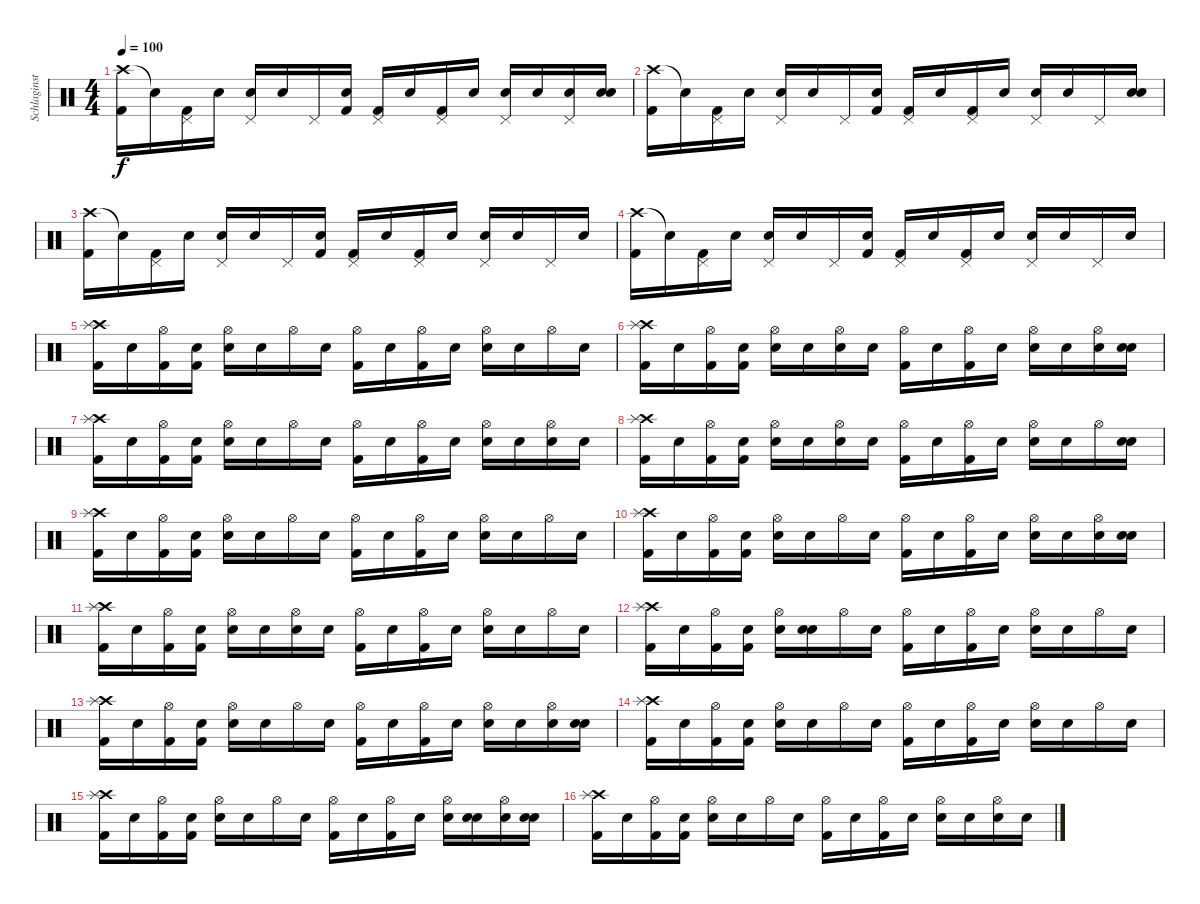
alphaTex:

\track ("Schlaginstrumente - Auswahl" "Schlaginst") {instrument percussion}
\staff {score}
\articulation defaults
\ts (4 4)
\tempo 100
\clef neutral
\ks c
("Crash high (hit)" "Kick (hit) 2").16{dy f} "Snare (hit)"{t}.16 ("Pedal Hi-Hat (hit)" "Kick (hit) 2").16 "Snare (hit)"{x}.16 ("Pedal Hi-Hat (hit)" "Electric Snare (hit)").16 "Snare (hit)"{x}.16 "Pedal Hi-Hat (hit)".16 ("Snare (hit)"{x} "Kick (hit) 2").16 ("Pedal Hi-Hat (hit)" "Kick (hit) 2").16 "Snare (hit)"{x}.16 ("Pedal Hi-Hat (hit)" "Kick (hit) 2").16 "Snare (hit)"{x}.16 ("Pedal Hi-Hat (hit)" "Electric Snare (hit)").16 "Snare (hit)"{x}.16 ("Pedal Hi-Hat (hit)" "Electric Snare (hit)").16 ("Snare (hit)"{x} "Electric Snare (hit)").16 |
("Crash high (hit)" "Kick (hit) 2").16 "Snare (hit)"{t}.16 ("Pedal Hi-Hat (hit)" "Kick (hit) 2").16 "Snare (hit)"{x}.16 ("Pedal Hi-Hat (hit)" "Electric Snare (hit)").16 "Snare (hit)"{x}.16 "Pedal Hi-Hat (hit)".16 ("Snare (hit)"{x} "Kick (hit) 2").16 ("Pedal Hi-Hat (hit)" "Kick (hit) 2").16 "Snare (hit)"{x}.16 ("Pedal Hi-Hat (hit)" "Kick (hit) 2").16 "Snare (hit)"{x}.16 ("Pedal Hi-Hat (hit)" "Electric Snare (hit)").16 "Snare (hit)"{x}.16 "Pedal Hi-Hat (hit)".16 ("Snare (hit)"{x} "Electric Snare (hit)").16 |
("Crash high (hit)" "Kick (hit) 2").16 "Snare (hit)"{t}.16 ("Pedal Hi-Hat (hit)" "Kick (hit) 2").16 "Snare (hit)"{x}.16 ("Pedal Hi-Hat (hit)" "Electric Snare (hit)").16 "Snare (hit)"{x}.16 "Pedal Hi-Hat (hit)".16 ("Snare (hit)"{x} "Kick (hit) 2").16 ("Pedal Hi-Hat (hit)" "Kick (hit) 2").16 "Snare (hit)"{x}.16 ("Pedal Hi-Hat (hit)" "Kick (hit) 2").16 "Snare (hit)"{x}.16 ("Pedal Hi-Hat (hit)" "Electric Snare (hit)").16 "Snare (hit)"{x}.16 "Pedal Hi-Hat (hit)".16 "Snare (hit)"{x}.16 |
("Crash high (hit)" "Kick (hit) 2").16 "Snare (hit)"{t}.16 ("Pedal Hi-Hat (hit)" "Kick (hit) 2").16 "Snare (hit)"{x}.16 ("Pedal Hi-Hat (hit)" "Electric Snare (hit)").16 "Snare (hit)"{x}.16 "Pedal Hi-Hat (hit)".16 ("Snare (hit)"{x} "Kick (hit) 2").16 ("Pedal Hi-Hat (hit)" "Kick (hit) 2").16 "Snare (hit)"{x}.16 ("Pedal Hi-Hat (hit)" "Kick (hit) 2").16 "Snare (hit)"{x}.16 ("Pedal Hi-Hat (hit)" "Electric Snare (hit)").16 "Snare (hit)"{x}.16 "Pedal Hi-Hat (hit)".16 "Snare (hit)"{x}.16 |
("Crash high (hit)" "Splash (hit)" "Kick (hit) 2").16 "Snare (hit)"{x}.16 ("Hi-Hat (open)" "Kick (hit) 2").16 ("Snare (hit)"{x} "Kick (hit) 2").16 ("Hi-Hat (open)" "Electric Snare (hit)").16 "Snare (hit)"{x}.16 "Hi-Hat (open)".16 "Snare (hit)"{x}.16 ("Hi-Hat (open)" "Kick (hit) 2").16 "Snare (hit)"{x}.16 ("Hi-Hat (open)" "Kick (hit) 2").16 "Snare (hit)"{x}.16 ("Hi-Hat (open)" "Electric Snare (hit)").16 "Snare (hit)"{x}.16 "Hi-Hat (open)".16 "Snare (hit)"{x}.16 |
("Crash high (hit)" "Splash (hit)" "Kick (hit) 2").16 "Snare (hit)"{x}.16 ("Hi-Hat (open)" "Kick (hit) 2").16 ("Snare (hit)"{x} "Kick (hit) 2").16 ("Hi-Hat (open)" "Electric Snare (hit)").16 "Snare (hit)"{x}.16 ("Hi-Hat (open)" "Electric Snare (hit)").16 "Snare (hit)"{x}.16 ("Hi-Hat (open)" "Kick (hit) 2").16 "Snare (hit)"{x}.16 ("Hi-Hat (open)" "Kick (hit) 2").16 "Snare (hit)"{x}.16 ("Hi-Hat (open)" "Electric Snare (hit)").16 "Snare (hit)"{x}.16 ("Hi-Hat (open)" "Electric Snare (hit)").16 ("Snare (hit)"{x} "Electric Snare (hit)").16 |
("Crash high (hit)" "Splash (hit)" "Kick (hit) 2").16 "Snare (hit)"{x}.16 ("Hi-Hat (open)" "Kick (hit) 2").16 ("Snare (hit)"{x} "Kick (hit) 2").16 ("Hi-Hat (open)" "Electric Snare (hit)").16 "Snare (hit)"{x}.16 "Hi-Hat (open)".16 "Snare (hit)"{x}.16 ("Hi-Hat (open)" "Kick (hit) 2").16 "Snare (hit)"{x}.16 ("Hi-Hat (open)" "Kick (hit) 2").16 "Snare (hit)"{x}.16 ("Hi-Hat (open)" "Electric Snare (hit)").16 "Snare (hit)"{x}.16 ("Hi-Hat (open)" "Electric Snare (hit)").16 "Snare (hit)"{x}.16 |
("Crash high (hit)" "Splash (hit)" "Kick (hit) 2").16 "Snare (hit)"{x}.16 ("Hi-Hat (open)" "Kick (hit) 2").16 ("Snare (hit)"{x} "Kick (hit) 2").16 ("Hi-Hat (open)" "Electric Snare (hit)").16 "Snare (hit)"{x}.16 ("Hi-Hat (open)" "Electric Snare (hit)").16 "Snare (hit)"{x}.16 ("Hi-Hat (open)" "Kick (hit) 2").16 "Snare (hit)"{x}.16 ("Hi-Hat (open)" "Kick (hit) 2").16 "Snare (hit)"{x}.16 ("Hi-Hat (open)" "Electric Snare (hit)").16 "Snare (hit)"{x}.16 "Hi-Hat (open)".16 ("Snare (hit)"{x} "Electric Snare (hit)").16 |
("Crash high (hit)" "Splash (hit)" "Kick (hit) 2").16 "Snare (hit)"{x}.16 ("Hi-Hat (open)" "Kick (hit) 2").16 ("Snare (hit)"{x} "Kick (hit) 2").16 ("Hi-Hat (open)" "Electric Snare (hit)").16 "Snare (hit)"{x}.16 "Hi-Hat (open)".16 "Snare (hit)"{x}.16 ("Hi-Hat (open)" "Kick (hit) 2").16 "Snare (hit)"{x}.16 ("Hi-Hat (open)" "Kick (hit) 2").16 "Snare (hit)"{x}.16 ("Hi-Hat (open)" "Electric Snare (hit)").16 "Snare (hit)"{x}.16 "Hi-Hat (open)".16 "Snare (hit)"{x}.16 |
("Crash high (hit)" "Splash (hit)" "Kick (hit) 2").16 "Snare (hit)"{x}.16 ("Hi-Hat (open)" "Kick (hit) 2").16 ("Snare (hit)"{x} "Kick (hit) 2").16 ("Hi-Hat (open)" "Electric Snare (hit)").16 "Snare (hit)"{x}.16 "Hi-Hat (open)".16 "Snare (hit)"{x}.16 ("Hi-Hat (open)" "Kick (hit) 2").16 "Snare (hit)"{x}.16 ("Hi-Hat (open)" "Kick (hit) 2").16 "Snare (hit)"{x}.16 ("Hi-Hat (open)" "Electric Snare (hit)").16 "Snare (hit)"{x}.16 ("Hi-Hat (open)" "Electric Snare (hit)").16 ("Snare (hit)"{x} "Electric Snare (hit)").16 |
("Crash high (hit)" "Splash (hit)" "Kick (hit) 2").16 "Snare (hit)"{x}.16 ("Hi-Hat (open)" "Kick (hit) 2").16 ("Snare (hit)"{x} "Kick (hit) 2").16 ("Hi-Hat (open)" "Electric Snare (hit)").16 "Snare (hit)"{x}.16 ("Hi-Hat (open)" "Electric Snare (hit)").16 "Snare (hit)"{x}.16 ("Hi-Hat (open)" "Kick (hit) 2").16 "Snare (hit)"{x}.16 ("Hi-Hat (open)" "Kick (hit) 2").16 "Snare (hit)"{x}.16 ("Hi-Hat (open)" "Electric Snare (hit)").16 "Snare (hit)"{x}.16 "Hi-Hat (open)".16 "Snare (hit)"{x}.16 |
("Crash high (hit)" "Splash (hit)" "Kick (hit) 2").16 "Snare (hit)"{x}.16 ("Hi-Hat (open)" "Kick (hit) 2").16 ("Snare (hit)"{x} "Kick (hit) 2").16 ("Hi-Hat (open)" "Electric Snare (hit)").16 ("Snare (hit)"{x} "Electric Snare (hit)").16 "Hi-Hat (open)".16 "Snare (hit)"{x}.16 ("Hi-Hat (open)" "Kick (hit) 2").16 "Snare (hit)"{x}.16 ("Hi-Hat (open)" "Kick (hit) 2").16 "Snare (hit)"{x}.16 ("Hi-Hat (open)" "Electric Snare (hit)").16 "Snare (hit)"{x}.16 "Hi-Hat (open)".16 "Snare (hit)"{x}.16 |
("Crash high (hit)" "Splash (hit)" "Kick (hit) 2").16 "Snare (hit)"{x}.16 ("Hi-Hat (open)" "Kick (hit) 2").16 ("Snare (hit)"{x} "Kick (hit) 2").16 ("Hi-Hat (open)" "Electric Snare (hit)").16 "Snare (hit)"{x}.16 "Hi-Hat (open)".16 "Snare (hit)"{x}.16 ("Hi-Hat (open)" "Kick (hit) 2").16 "Snare (hit)"{x}.16 ("Hi-Hat (open)" "Kick (hit) 2").16 "Snare (hit)"{x}.16 ("Hi-Hat (open)" "Electric Snare (hit)").16 "Snare (hit)"{x}.16 ("Hi-Hat (open)" "Electric Snare (hit)").16 ("Snare (hit)"{x} "Electric Snare (hit)"{tr (40 32)}).16 |
("Crash high (hit)" "Splash (hit)" "Kick (hit) 2").16 "Snare (hit)"{x}.16 ("Hi-Hat (open)" "Kick (hit) 2").16 ("Snare (hit)"{x} "Kick (hit) 2").16 ("Hi-Hat (open)" "Electric Snare (hit)").16 "Snare (hit)"{x}.16 "Hi-Hat (open)".16 "Snare (hit)"{x}.16 ("Hi-Hat (open)" "Kick (hit) 2").16 "Snare (hit)"{x}.16 ("Hi-Hat (open)" "Kick (hit) 2").16 "Snare (hit)"{x}.16 ("Hi-Hat (open)" "Electric Snare (hit)").16 "Snare (hit)"{x}.16 "Hi-Hat (open)".16 "Snare (hit)"{x}.16 |
("Crash high (hit)" "Splash (hit)" "Kick (hit) 2").16 "Snare (hit)"{x}.16 ("Hi-Hat (open)" "Kick (hit) 2").16 ("Snare (hit)"{x} "Kick (hit) 2").16 ("Hi-Hat (open)" "Electric Snare (hit)").16 "Snare (hit)"{x}.16 "Hi-Hat (open)".16 "Snare (hit)"{x}.16 ("Hi-Hat (open)" "Kick (hit) 2").16 "Snare (hit)"{x}.16 ("Hi-Hat (open)" "Kick (hit) 2").16 "Snare (hit)"{x}.16 ("Hi-Hat (open)" "Electric Snare (hit)").16 ("Snare (hit)"{x} "Electric Snare (hit)").16 ("Hi-Hat (open)" "Electric Snare (hit)").16 ("Snare (hit)"{x} "Electric Snare (hit)").16 |
("Crash high (hit)" "Splash (hit)" "Kick (hit) 2").16 "Snare (hit)"{x}.16 ("Hi-Hat (open)" "Kick (hit) 2").16 ("Snare (hit)"{x} "Kick (hit) 2").16 ("Hi-Hat (open)" "Electric Snare (hit)").16 "Snare (hit)"{x}.16 "Hi-Hat (open)".16 "Snare (hit)"{x}.16 ("Hi-Hat (open)" "Kick (hit) 2").16 "Snare (hit)"{x}.16 ("Hi-Hat (open)" "Kick (hit) 2").16 "Snare (hit)"{x}.16 ("Hi-Hat (open)" "Electric Snare (hit)").16 "Snare (hit)"{x}.16 ("Hi-Hat (open)" "Electric Snare (hit)").16 "Snare (hit)"{x}.16
